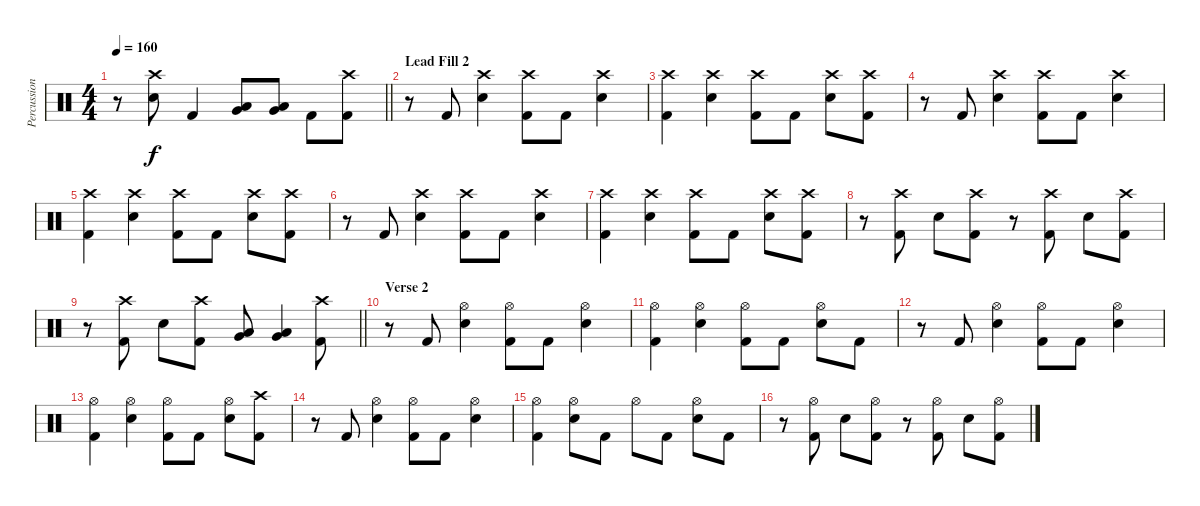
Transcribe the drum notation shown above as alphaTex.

\track ("Percussion" "Percussion") {instrument percussion}
\staff {score}
\articulation defaults
\ts (4 4)
\tempo 160
\clef neutral
\barLineRight lightlight
\ks c
r.8{dy f} ("Crash high (hit)" "Electric Snare (hit)").8 "Kick (hit) 2".4 ("Very Low Tom (hit)" "Low Floor Tom (hit)").8 ("Very Low Tom (hit)" "Low Floor Tom (hit)").8 "Kick (hit) 2".8 ("Crash high (hit)" "Kick (hit) 2").8 |
\section ("" "Lead Fill 2")
r.8 "Kick (hit) 2".8 ("Crash high (hit)" "Electric Snare (hit)").4 ("Crash high (hit)" "Kick (hit) 2").8 "Kick (hit) 2".8 ("Crash high (hit)" "Electric Snare (hit)").4 |
("Crash high (hit)" "Kick (hit) 2").4 ("Crash high (hit)" "Electric Snare (hit)").4 ("Crash high (hit)" "Kick (hit) 2").8 "Kick (hit) 2".8 ("Crash high (hit)" "Electric Snare (hit)").8 ("Crash high (hit)" "Kick (hit) 2").8 |
r.8 "Kick (hit) 2".8 ("Crash high (hit)" "Electric Snare (hit)").4 ("Crash high (hit)" "Kick (hit) 2").8 "Kick (hit) 2".8 ("Crash high (hit)" "Electric Snare (hit)").4 |
("Crash high (hit)" "Kick (hit) 2").4 ("Crash high (hit)" "Electric Snare (hit)").4 ("Crash high (hit)" "Kick (hit) 2").8 "Kick (hit) 2".8 ("Crash high (hit)" "Electric Snare (hit)").8 ("Crash high (hit)" "Kick (hit) 2").8 |
r.8 "Kick (hit) 2".8 ("Crash high (hit)" "Electric Snare (hit)").4 ("Crash high (hit)" "Kick (hit) 2").8 "Kick (hit) 2".8 ("Crash high (hit)" "Electric Snare (hit)").4 |
("Crash high (hit)" "Kick (hit) 2").4 ("Crash high (hit)" "Electric Snare (hit)").4 ("Crash high (hit)" "Kick (hit) 2").8 "Kick (hit) 2".8 ("Crash high (hit)" "Electric Snare (hit)").8 ("Crash high (hit)" "Kick (hit) 2").8 |
r.8 ("Crash high (hit)" "Kick (hit) 2").8 "Electric Snare (hit)".8 ("Crash high (hit)" "Kick (hit) 2").8 r.8 ("Crash high (hit)" "Kick (hit) 2").8 "Electric Snare (hit)".8 ("Crash high (hit)" "Kick (hit) 2").8 |
\barLineRight lightlight
r.8 ("Crash high (hit)" "Kick (hit) 2").8 "Electric Snare (hit)".8 ("Crash high (hit)" "Kick (hit) 2").8 ("Very Low Tom (hit)" "Low Floor Tom (hit)").8 ("Very Low Tom (hit)" "Low Floor Tom (hit)").4 ("Crash high (hit)" "Kick (hit) 2").8 |
\section ("" "Verse 2")
r.8 "Kick (hit) 2".8 ("Hi-Hat (open)" "Electric Snare (hit)").4 ("Hi-Hat (open)" "Kick (hit) 2").8 "Kick (hit) 2".8 ("Hi-Hat (open)" "Electric Snare (hit)").4 |
("Hi-Hat (open)" "Kick (hit) 2").4 ("Hi-Hat (open)" "Electric Snare (hit)").4 ("Hi-Hat (open)" "Kick (hit) 2").8 "Kick (hit) 2".8 ("Hi-Hat (open)" "Electric Snare (hit)").8 "Kick (hit) 2".8 |
r.8 "Kick (hit) 2".8 ("Hi-Hat (open)" "Electric Snare (hit)").4 ("Hi-Hat (open)" "Kick (hit) 2").8 "Kick (hit) 2".8 ("Hi-Hat (open)" "Electric Snare (hit)").4 |
("Hi-Hat (open)" "Kick (hit) 2").4 ("Hi-Hat (open)" "Electric Snare (hit)").4 ("Hi-Hat (open)" "Kick (hit) 2").8 "Kick (hit) 2".8 ("Hi-Hat (open)" "Electric Snare (hit)").8 ("Crash high (hit)" "Kick (hit) 2").8 |
r.8 "Kick (hit) 2".8 ("Hi-Hat (open)" "Electric Snare (hit)").4 ("Hi-Hat (open)" "Kick (hit) 2").8 "Kick (hit) 2".8 ("Hi-Hat (open)" "Electric Snare (hit)").4 |
("Hi-Hat (open)" "Kick (hit) 2").4 ("Hi-Hat (open)" "Electric Snare (hit)").8 "Kick (hit) 2".8 "Hi-Hat (open)".8 "Kick (hit) 2".8 ("Hi-Hat (open)" "Electric Snare (hit)").8 "Kick (hit) 2".8 |
r.8 ("Hi-Hat (open)" "Kick (hit) 2").8 "Electric Snare (hit)".8 ("Hi-Hat (open)" "Kick (hit) 2").8 r.8 ("Hi-Hat (open)" "Kick (hit) 2").8 "Electric Snare (hit)".8 ("Hi-Hat (open)" "Kick (hit) 2").8
